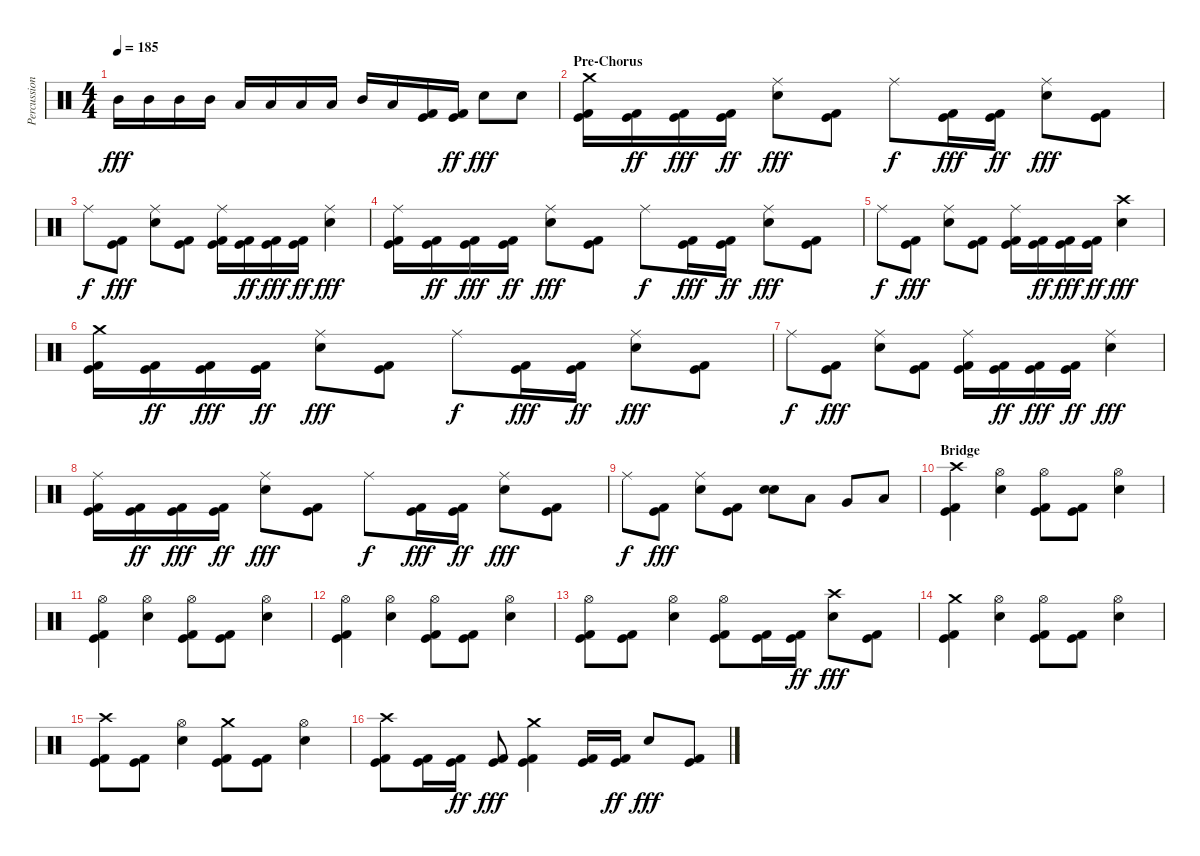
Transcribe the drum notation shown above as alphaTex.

\track ("Percussion" "Percussion") {instrument percussion}
\staff {score}
\articulation defaults
\ts (4 4)
\tempo 185
\clef neutral
\ks c "Mid Tom (hit)".16{dy fff} "Mid Tom (hit)".16 "Mid Tom (hit)".16 "Mid Tom (hit)".16 "Low Tom (hit)".16 "Low Tom (hit)".16 "Low Tom (hit)".16 "Low Tom (hit)".16 "Mid Tom (hit)".16 "Low Tom (hit)".16
("Kick (hit)" "Kick (hit) 2").16 ("Kick (hit)" "Kick (hit) 2").16{dy ff} "Snare (hit) 2".8{dy fff} "Snare (hit) 2".8 |
\section ("" "Pre-Chorus")
("Crash medium (hit)" "Kick (hit)" "Kick (hit) 2").16 ("Kick (hit)" "Kick (hit) 2").16{dy ff} ("Kick (hit)" "Kick (hit) 2").16{dy fff} ("Kick (hit)" "Kick (hit) 2").16{dy ff} ("Ride (middle)" "Snare (hit) 2").8{dy fff} ("Kick (hit)" "Kick (hit) 2").8 "Ride (middle)".8{dy f} ("Kick (hit)" "Kick (hit) 2").16{dy fff} ("Kick (hit)" "Kick (hit) 2").16{dy ff} ("Ride (middle)" "Snare (hit) 2").8{dy fff} ("Kick (hit)" "Kick (hit) 2").8 |
"Ride (middle)".8{dy f} ("Kick (hit)" "Kick (hit) 2").8{dy fff} ("Ride (middle)" "Snare (hit) 2").8 ("Kick (hit)" "Kick (hit) 2").8 ("Ride (middle)" "Kick (hit)" "Kick (hit) 2").16 ("Kick (hit)" "Kick (hit) 2").16{dy ff} ("Kick (hit)" "Kick (hit) 2").16{dy fff} ("Kick (hit)" "Kick (hit) 2").16{dy ff} ("Ride (middle)" "Snare (hit) 2").4{dy fff} |
("Ride (middle)" "Kick (hit)" "Kick (hit) 2").16 ("Kick (hit)" "Kick (hit) 2").16{dy ff} ("Kick (hit)" "Kick (hit) 2").16{dy fff} ("Kick (hit)" "Kick (hit) 2").16{dy ff} ("Ride (middle)" "Snare (hit) 2").8{dy fff} ("Kick (hit)" "Kick (hit) 2").8 "Ride (middle)".8{dy f} ("Kick (hit)" "Kick (hit) 2").16{dy fff} ("Kick (hit)" "Kick (hit) 2").16{dy ff} ("Ride (middle)" "Snare (hit) 2").8{dy fff} ("Kick (hit)" "Kick (hit) 2").8 |
"Ride (middle)".8{dy f} ("Kick (hit)" "Kick (hit) 2").8{dy fff} ("Ride (middle)" "Snare (hit) 2").8 ("Kick (hit)" "Kick (hit) 2").8 ("Ride (middle)" "Kick (hit)" "Kick (hit) 2").16 ("Kick (hit)" "Kick (hit) 2").16{dy ff} ("Kick (hit)" "Kick (hit) 2").16{dy fff} ("Kick (hit)" "Kick (hit) 2").16{dy ff} ("Crash high (hit)" "Snare (hit) 2").4{dy fff} |
("Crash medium (hit)" "Kick (hit)" "Kick (hit) 2").16 ("Kick (hit)" "Kick (hit) 2").16{dy ff} ("Kick (hit)" "Kick (hit) 2").16{dy fff} ("Kick (hit)" "Kick (hit) 2").16{dy ff} ("Ride (middle)" "Snare (hit) 2").8{dy fff} ("Kick (hit)" "Kick (hit) 2").8 "Ride (middle)".8{dy f} ("Kick (hit)" "Kick (hit) 2").16{dy fff} ("Kick (hit)" "Kick (hit) 2").16{dy ff} ("Ride (middle)" "Snare (hit) 2").8{dy fff} ("Kick (hit)" "Kick (hit) 2").8 |
"Ride (middle)".8{dy f} ("Kick (hit)" "Kick (hit) 2").8{dy fff} ("Ride (middle)" "Snare (hit) 2").8 ("Kick (hit)" "Kick (hit) 2").8 ("Ride (middle)" "Kick (hit)" "Kick (hit) 2").16 ("Kick (hit)" "Kick (hit) 2").16{dy ff} ("Kick (hit)" "Kick (hit) 2").16{dy fff} ("Kick (hit)" "Kick (hit) 2").16{dy ff} ("Ride (middle)" "Snare (hit) 2").4{dy fff} |
("Ride (middle)" "Kick (hit)" "Kick (hit) 2").16 ("Kick (hit)" "Kick (hit) 2").16{dy ff} ("Kick (hit)" "Kick (hit) 2").16{dy fff} ("Kick (hit)" "Kick (hit) 2").16{dy ff} ("Ride (middle)" "Snare (hit) 2").8{dy fff} ("Kick (hit)" "Kick (hit) 2").8 "Ride (middle)".8{dy f} ("Kick (hit)" "Kick (hit) 2").16{dy fff} ("Kick (hit)" "Kick (hit) 2").16{dy ff} ("Ride (middle)" "Snare (hit) 2").8{dy fff} ("Kick (hit)" "Kick (hit) 2").8 |
"Ride (middle)".8{dy f} ("Kick (hit)" "Kick (hit) 2").8{dy fff} ("Ride (middle)" "Snare (hit) 2").8 ("Kick (hit)" "Kick (hit) 2").8 ("Snare (hit) 2" "Snare (hit) 2").8{bu 480} "Low Tom (hit)".8 "Very Low Tom (hit)".8 "Low Tom (hit)".8 |
\section ("" "Bridge")
("Crash high (hit)" "Kick (hit)" "Kick (hit) 2").4 ("Hi-Hat (open)" "Snare (hit) 2").4 ("Hi-Hat (open)" "Kick (hit)" "Kick (hit) 2").8 ("Kick (hit)" "Kick (hit) 2").8 ("Hi-Hat (open)" "Snare (hit) 2").4 |
("Hi-Hat (open)" "Kick (hit)" "Kick (hit) 2").4 ("Hi-Hat (open)" "Snare (hit) 2").4 ("Hi-Hat (open)" "Kick (hit)" "Kick (hit) 2").8 ("Kick (hit)" "Kick (hit) 2").8 ("Hi-Hat (open)" "Snare (hit) 2").4 |
("Hi-Hat (open)" "Kick (hit)" "Kick (hit) 2").4 ("Hi-Hat (open)" "Snare (hit) 2").4 ("Hi-Hat (open)" "Kick (hit)" "Kick (hit) 2").8 ("Kick (hit)" "Kick (hit) 2").8 ("Hi-Hat (open)" "Snare (hit) 2").4 |
("Hi-Hat (open)" "Kick (hit)" "Kick (hit) 2").8 ("Kick (hit)" "Kick (hit) 2").8 ("Hi-Hat (open)" "Snare (hit) 2").4 ("Hi-Hat (open)" "Kick (hit)" "Kick (hit) 2").8 ("Kick (hit)" "Kick (hit) 2").16 ("Kick (hit)" "Kick (hit) 2").16{dy ff} ("Crash high (hit)" "Snare (hit) 2").8{dy fff} ("Kick (hit)" "Kick (hit) 2").8 |
("Crash medium (hit)" "Kick (hit)" "Kick (hit) 2").4 ("Hi-Hat (open)" "Snare (hit) 2").4 ("Hi-Hat (open)" "Kick (hit)" "Kick (hit) 2").8 ("Kick (hit)" "Kick (hit) 2").8 ("Hi-Hat (open)" "Snare (hit) 2").4 |
("Crash high (hit)" "Kick (hit)" "Kick (hit) 2").8 ("Kick (hit)" "Kick (hit) 2").8 ("Hi-Hat (open)" "Snare (hit) 2").4 ("Crash medium (hit)" "Kick (hit)" "Kick (hit) 2").8 ("Kick (hit)" "Kick (hit) 2").8 ("Hi-Hat (open)" "Snare (hit) 2").4 |
("Crash high (hit)" "Kick (hit)" "Kick (hit) 2").8 ("Kick (hit)" "Kick (hit) 2").16 ("Kick (hit)" "Kick (hit) 2").16{dy ff} ("Kick (hit)" "Kick (hit) 2").8{dy fff} ("Crash medium (hit)" "Kick (hit)" "Kick (hit) 2").4 ("Kick (hit)" "Kick (hit) 2").16 ("Kick (hit)" "Kick (hit) 2").16{dy ff} "Snare (hit) 2".8{dy fff} ("Kick (hit)" "Kick (hit) 2").8
